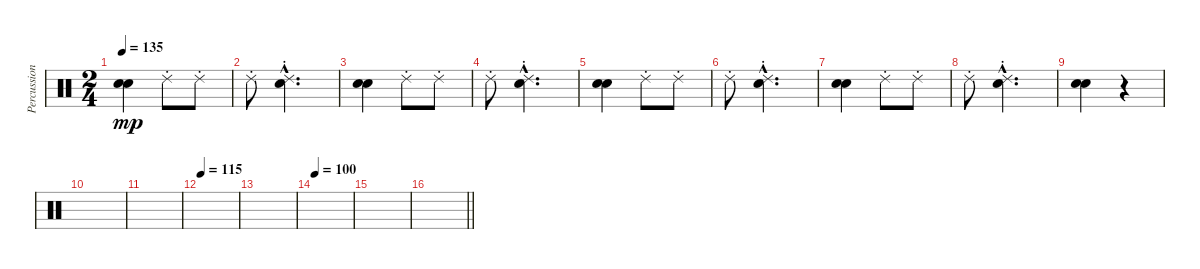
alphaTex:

\track ("Percussions" "Percussion") {instrument percussion}
\staff {score}
\articulation defaults
\ts (2 4)
\tempo 135
\clef neutral
\ks c
("Electric Snare (hit)" "Snare (hit) 2").4{dy mp} "Ride (choke) 2".8 "Ride (choke) 2".8 |
"Ride (choke) 2".8 ("Snare (hit) 2"{hac} "Ride (choke) 2"{hac}).4{d} |
("Electric Snare (hit)" "Snare (hit) 2").4 "Ride (choke) 2".8 "Ride (choke) 2".8 |
"Ride (choke) 2".8 ("Snare (hit) 2"{hac} "Ride (choke) 2"{hac}).4{d} |
("Electric Snare (hit)" "Snare (hit) 2").4 "Ride (choke) 2".8 "Ride (choke) 2".8 |
"Ride (choke) 2".8 ("Snare (hit) 2"{hac} "Ride (choke) 2"{hac}).4{d} |
("Electric Snare (hit)" "Snare (hit) 2").4 "Ride (choke) 2".8 "Ride (choke) 2".8 |
"Ride (choke) 2".8 ("Snare (hit) 2"{hac} "Ride (choke) 2"{hac}).4{d} |
("Electric Snare (hit)" "Snare (hit) 2").4 r.4 |
|
|
\tempo 115
|
|
\tempo 100
|
|
\barLineRight lightlight
